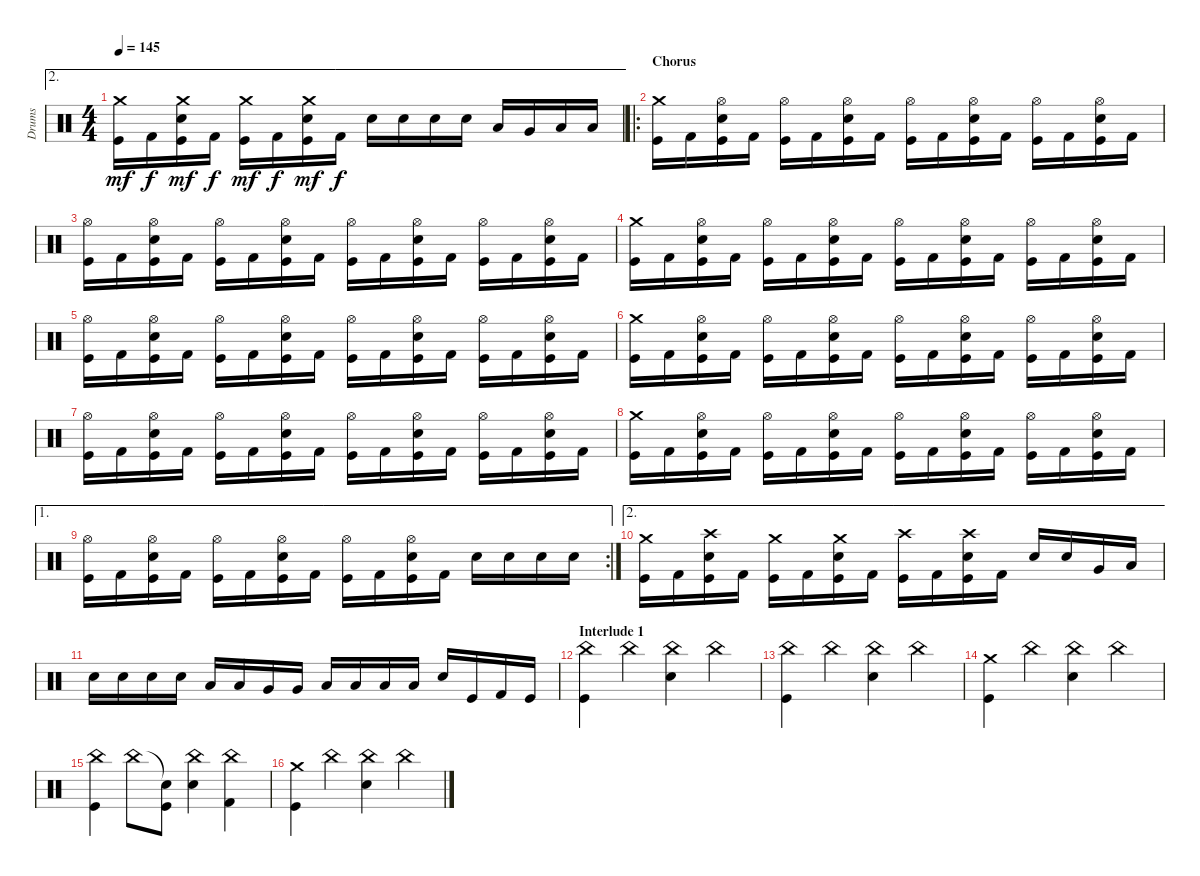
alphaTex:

\track ("Drums" "Drums") {instrument percussion}
\staff {score}
\articulation defaults
\ae 2
\ts (4 4)
\tempo 145
\clef neutral
\ks c
("Crash medium (hit)" "Kick (hit)").16{dy mf} "Kick (hit) 2".16{dy f} ("Crash medium (hit)" "Electric Snare (hit)" "Kick (hit)").16{dy mf} "Kick (hit) 2".16{dy f} ("Crash medium (hit)" "Kick (hit)").16{dy mf} "Kick (hit) 2".16{dy f} ("Crash medium (hit)" "Electric Snare (hit)" "Kick (hit)").16{dy mf} "Kick (hit) 2".16{dy f} "Electric Snare (hit)".16 "Electric Snare (hit)".16 "Electric Snare (hit)".16 "Electric Snare (hit)".16 "Low Tom (hit)".16 "Very Low Tom (hit)".16 "Low Floor Tom (hit)".16 "Low Floor Tom (hit)".16 |
\ro
\section ("" "Chorus")
("Crash medium (hit)" "Kick (hit)").16 "Kick (hit) 2".16 ("Hi-Hat (open)" "Electric Snare (hit)" "Kick (hit)").16 "Kick (hit) 2".16 ("Hi-Hat (open)" "Kick (hit)").16 "Kick (hit) 2".16 ("Hi-Hat (open)" "Electric Snare (hit)" "Kick (hit)").16 "Kick (hit) 2".16 ("Hi-Hat (open)" "Kick (hit)").16 "Kick (hit) 2".16 ("Hi-Hat (open)" "Electric Snare (hit)" "Kick (hit)").16 "Kick (hit) 2".16 ("Hi-Hat (open)" "Kick (hit)").16 "Kick (hit) 2".16 ("Hi-Hat (open)" "Electric Snare (hit)" "Kick (hit)").16 "Kick (hit) 2".16 |
("Hi-Hat (open)" "Kick (hit)").16 "Kick (hit) 2".16 ("Hi-Hat (open)" "Electric Snare (hit)" "Kick (hit)").16 "Kick (hit) 2".16 ("Hi-Hat (open)" "Kick (hit)").16 "Kick (hit) 2".16 ("Hi-Hat (open)" "Electric Snare (hit)" "Kick (hit)").16 "Kick (hit) 2".16 ("Hi-Hat (open)" "Kick (hit)").16 "Kick (hit) 2".16 ("Hi-Hat (open)" "Electric Snare (hit)" "Kick (hit)").16 "Kick (hit) 2".16 ("Hi-Hat (open)" "Kick (hit)").16 "Kick (hit) 2".16 ("Hi-Hat (open)" "Electric Snare (hit)" "Kick (hit)").16 "Kick (hit) 2".16 |
("Crash medium (hit)" "Kick (hit)").16 "Kick (hit) 2".16 ("Hi-Hat (open)" "Electric Snare (hit)" "Kick (hit)").16 "Kick (hit) 2".16 ("Hi-Hat (open)" "Kick (hit)").16 "Kick (hit) 2".16 ("Hi-Hat (open)" "Electric Snare (hit)" "Kick (hit)").16 "Kick (hit) 2".16 ("Hi-Hat (open)" "Kick (hit)").16 "Kick (hit) 2".16 ("Hi-Hat (open)" "Electric Snare (hit)" "Kick (hit)").16 "Kick (hit) 2".16 ("Hi-Hat (open)" "Kick (hit)").16 "Kick (hit) 2".16 ("Hi-Hat (open)" "Electric Snare (hit)" "Kick (hit)").16 "Kick (hit) 2".16 |
("Hi-Hat (open)" "Kick (hit)").16 "Kick (hit) 2".16 ("Hi-Hat (open)" "Electric Snare (hit)" "Kick (hit)").16 "Kick (hit) 2".16 ("Hi-Hat (open)" "Kick (hit)").16 "Kick (hit) 2".16 ("Hi-Hat (open)" "Electric Snare (hit)" "Kick (hit)").16 "Kick (hit) 2".16 ("Hi-Hat (open)" "Kick (hit)").16 "Kick (hit) 2".16 ("Hi-Hat (open)" "Electric Snare (hit)" "Kick (hit)").16 "Kick (hit) 2".16 ("Hi-Hat (open)" "Kick (hit)").16 "Kick (hit) 2".16 ("Hi-Hat (open)" "Electric Snare (hit)" "Kick (hit)").16 "Kick (hit) 2".16 |
("Crash medium (hit)" "Kick (hit)").16 "Kick (hit) 2".16 ("Hi-Hat (open)" "Electric Snare (hit)" "Kick (hit)").16 "Kick (hit) 2".16 ("Hi-Hat (open)" "Kick (hit)").16 "Kick (hit) 2".16 ("Hi-Hat (open)" "Electric Snare (hit)" "Kick (hit)").16 "Kick (hit) 2".16 ("Hi-Hat (open)" "Kick (hit)").16 "Kick (hit) 2".16 ("Hi-Hat (open)" "Electric Snare (hit)" "Kick (hit)").16 "Kick (hit) 2".16 ("Hi-Hat (open)" "Kick (hit)").16 "Kick (hit) 2".16 ("Hi-Hat (open)" "Electric Snare (hit)" "Kick (hit)").16 "Kick (hit) 2".16 |
("Hi-Hat (open)" "Kick (hit)").16 "Kick (hit) 2".16 ("Hi-Hat (open)" "Electric Snare (hit)" "Kick (hit)").16 "Kick (hit) 2".16 ("Hi-Hat (open)" "Kick (hit)").16 "Kick (hit) 2".16 ("Hi-Hat (open)" "Electric Snare (hit)" "Kick (hit)").16 "Kick (hit) 2".16 ("Hi-Hat (open)" "Kick (hit)").16 "Kick (hit) 2".16 ("Hi-Hat (open)" "Electric Snare (hit)" "Kick (hit)").16 "Kick (hit) 2".16 ("Hi-Hat (open)" "Kick (hit)").16 "Kick (hit) 2".16 ("Hi-Hat (open)" "Electric Snare (hit)" "Kick (hit)").16 "Kick (hit) 2".16 |
("Crash medium (hit)" "Kick (hit)").16 "Kick (hit) 2".16 ("Hi-Hat (open)" "Electric Snare (hit)" "Kick (hit)").16 "Kick (hit) 2".16 ("Hi-Hat (open)" "Kick (hit)").16 "Kick (hit) 2".16 ("Hi-Hat (open)" "Electric Snare (hit)" "Kick (hit)").16 "Kick (hit) 2".16 ("Hi-Hat (open)" "Kick (hit)").16 "Kick (hit) 2".16 ("Hi-Hat (open)" "Electric Snare (hit)" "Kick (hit)").16 "Kick (hit) 2".16 ("Hi-Hat (open)" "Kick (hit)").16 "Kick (hit) 2".16 ("Hi-Hat (open)" "Electric Snare (hit)" "Kick (hit)").16 "Kick (hit) 2".16 |
\ae 1
\rc 2
("Hi-Hat (open)" "Kick (hit)").16 "Kick (hit) 2".16 ("Hi-Hat (open)" "Electric Snare (hit)" "Kick (hit)").16 "Kick (hit) 2".16 ("Hi-Hat (open)" "Kick (hit)").16 "Kick (hit) 2".16 ("Hi-Hat (open)" "Electric Snare (hit)" "Kick (hit)").16 "Kick (hit) 2".16 ("Hi-Hat (open)" "Kick (hit)").16 "Kick (hit) 2".16 ("Hi-Hat (open)" "Electric Snare (hit)" "Kick (hit)").16 "Kick (hit) 2".16 "Electric Snare (hit)".16 "Electric Snare (hit)".16 "Electric Snare (hit)".16 "Electric Snare (hit)".16 |
\ae 2
("Crash medium (hit)" "Kick (hit)").16 "Kick (hit) 2".16 ("Crash high (hit)" "Electric Snare (hit)" "Kick (hit)").16 "Kick (hit) 2".16 ("Crash medium (hit)" "Kick (hit)").16 "Kick (hit) 2".16 ("Crash medium (hit)" "Electric Snare (hit)" "Kick (hit)").16 "Kick (hit) 2".16 ("Crash high (hit)" "Kick (hit)").16 "Kick (hit) 2".16 ("Crash high (hit)" "Electric Snare (hit)" "Kick (hit)").16 "Kick (hit) 2".16 "Electric Snare (hit)".16 "Electric Snare (hit)".16 "Very Low Tom (hit)".16 "Low Floor Tom (hit)".16 |
"Electric Snare (hit)".16 "Electric Snare (hit)".16 "Electric Snare (hit)".16 "Electric Snare (hit)".16 "Low Tom (hit)".16 "Low Tom (hit)".16 "Very Low Tom (hit)".16 "Very Low Tom (hit)".16 "Low Floor Tom (hit)".16 "Low Floor Tom (hit)".16 "Low Floor Tom (hit)".16 "Low Floor Tom (hit)".16 "Electric Snare (hit)".16 "Kick (hit)".16 "Kick (hit) 2".16 "Kick (hit)".16 |
\section ("" "Interlude 1")
("China (hit)" "Kick (hit)").4 "China (hit)".4 ("China (hit)" "Electric Snare (hit)").4 "China (hit)".4 |
("China (hit)" "Kick (hit)").4 "China (hit)".4 ("China (hit)" "Electric Snare (hit)").4 "China (hit)".4 |
("Crash medium (hit)" "Kick (hit)").4 "China (hit)".4 ("China (hit)" "Electric Snare (hit)").4 "China (hit)".4 |
("China (hit)" "Kick (hit)").4 "China (hit)".8 ("Snare (hit)"{t} "Kick (hit)").8 ("China (hit)" "Electric Snare (hit)").4 ("China (hit)" "Kick (hit) 2").4 |
("Crash medium (hit)" "Kick (hit)").4 "China (hit)".4 ("China (hit)" "Electric Snare (hit)").4 "China (hit)".4
